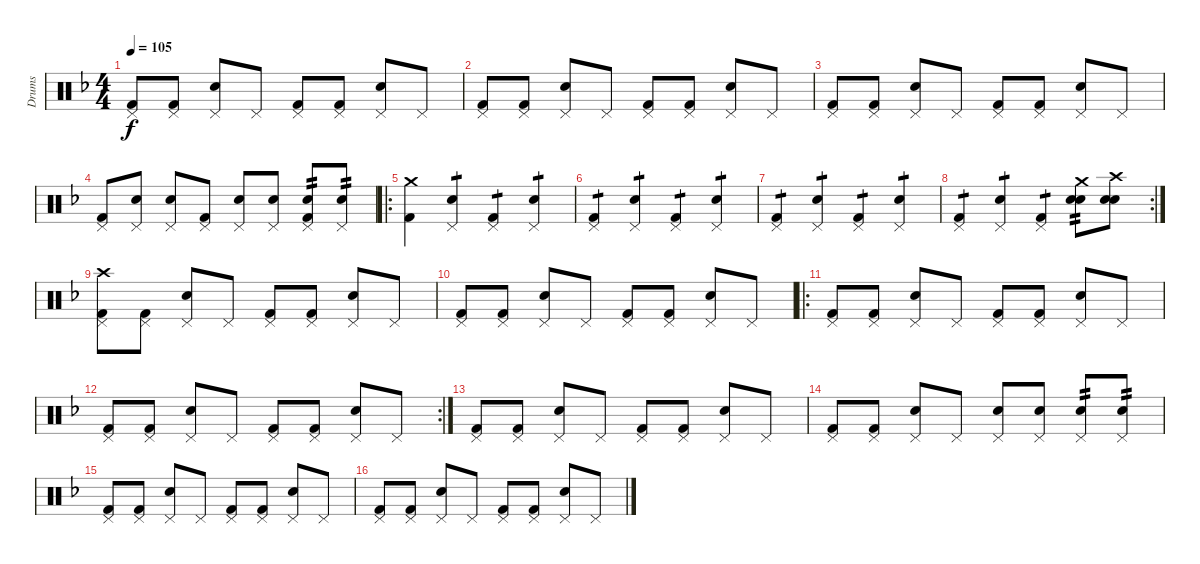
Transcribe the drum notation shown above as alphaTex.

\track ("Drums" "Drums") {instrument percussion}
\staff {score}
\articulation defaults
\ts (4 4)
\tempo 105
\clef neutral
\ks f
("Kick (hit) 2" "Pedal Hi-Hat (hit)").8{dy f} ("Kick (hit) 2" "Pedal Hi-Hat (hit)").8 ("Snare (hit) 2" "Pedal Hi-Hat (hit)").8 "Pedal Hi-Hat (hit)".8 ("Kick (hit) 2" "Pedal Hi-Hat (hit)").8 ("Kick (hit) 2" "Pedal Hi-Hat (hit)").8 ("Snare (hit) 2" "Pedal Hi-Hat (hit)").8 "Pedal Hi-Hat (hit)".8 |
("Kick (hit) 2" "Pedal Hi-Hat (hit)").8 ("Kick (hit) 2" "Pedal Hi-Hat (hit)").8 ("Snare (hit) 2" "Pedal Hi-Hat (hit)").8 "Pedal Hi-Hat (hit)".8 ("Kick (hit) 2" "Pedal Hi-Hat (hit)").8 ("Kick (hit) 2" "Pedal Hi-Hat (hit)").8 ("Snare (hit) 2" "Pedal Hi-Hat (hit)").8 "Pedal Hi-Hat (hit)".8 |
("Kick (hit) 2" "Pedal Hi-Hat (hit)").8 ("Kick (hit) 2" "Pedal Hi-Hat (hit)").8 ("Snare (hit) 2" "Pedal Hi-Hat (hit)").8 "Pedal Hi-Hat (hit)".8 ("Kick (hit) 2" "Pedal Hi-Hat (hit)").8 ("Kick (hit) 2" "Pedal Hi-Hat (hit)").8 ("Snare (hit) 2" "Pedal Hi-Hat (hit)").8 "Pedal Hi-Hat (hit)".8 |
("Kick (hit) 2" "Pedal Hi-Hat (hit)").8 ("Snare (hit) 2" "Pedal Hi-Hat (hit)").8 ("Snare (hit) 2" "Pedal Hi-Hat (hit)").8 ("Kick (hit) 2" "Pedal Hi-Hat (hit)").8 ("Snare (hit) 2" "Pedal Hi-Hat (hit)").8 ("Snare (hit) 2" "Pedal Hi-Hat (hit)").8 ("Snare (hit) 2" "Kick (hit) 2" "Pedal Hi-Hat (hit)").8{tp 2} ("Snare (hit) 2" "Pedal Hi-Hat (hit)").8{tp 2} |
\ro
("Kick (hit) 2" "Crash medium (hit)").4 ("Snare (hit) 2" "Pedal Hi-Hat (hit)").4{tp 1} ("Kick (hit) 2" "Pedal Hi-Hat (hit)").4{tp 1} ("Snare (hit) 2" "Pedal Hi-Hat (hit)").4{tp 1} |
("Kick (hit) 2" "Pedal Hi-Hat (hit)").4{tp 1} ("Snare (hit) 2" "Pedal Hi-Hat (hit)").4{tp 1} ("Kick (hit) 2" "Pedal Hi-Hat (hit)").4{tp 1} ("Snare (hit) 2" "Pedal Hi-Hat (hit)").4{tp 1} |
("Kick (hit) 2" "Pedal Hi-Hat (hit)").4{tp 1} ("Snare (hit) 2" "Pedal Hi-Hat (hit)").4{tp 1} ("Kick (hit) 2" "Pedal Hi-Hat (hit)").4{tp 1} ("Snare (hit) 2" "Pedal Hi-Hat (hit)").4{tp 1} |
\rc 2
("Kick (hit) 2" "Pedal Hi-Hat (hit)").4{tp 1} ("Snare (hit) 2" "Pedal Hi-Hat (hit)").4{tp 1} ("Kick (hit) 2" "Pedal Hi-Hat (hit)").4{tp 1} ("Snare (hit) 2" "Snare (hit) 2" "Crash medium (hit)").8{tp 2} ("Snare (hit) 2" "Snare (hit) 2" "Crash high (hit)").8 |
("Kick (hit) 2" "Pedal Hi-Hat (hit)" "Crash high (hit)").8 ("Kick (hit) 2" "Pedal Hi-Hat (hit)").8 ("Snare (hit) 2" "Pedal Hi-Hat (hit)").8 "Pedal Hi-Hat (hit)".8 ("Kick (hit) 2" "Pedal Hi-Hat (hit)").8 ("Kick (hit) 2" "Pedal Hi-Hat (hit)").8 ("Snare (hit) 2" "Pedal Hi-Hat (hit)").8 "Pedal Hi-Hat (hit)".8 |
("Kick (hit) 2" "Pedal Hi-Hat (hit)").8 ("Kick (hit) 2" "Pedal Hi-Hat (hit)").8 ("Snare (hit) 2" "Pedal Hi-Hat (hit)").8 "Pedal Hi-Hat (hit)".8 ("Kick (hit) 2" "Pedal Hi-Hat (hit)").8 ("Kick (hit) 2" "Pedal Hi-Hat (hit)").8 ("Snare (hit) 2" "Pedal Hi-Hat (hit)").8 "Pedal Hi-Hat (hit)".8 |
\ro
("Kick (hit) 2" "Pedal Hi-Hat (hit)").8 ("Kick (hit) 2" "Pedal Hi-Hat (hit)").8 ("Snare (hit) 2" "Pedal Hi-Hat (hit)").8 "Pedal Hi-Hat (hit)".8 ("Kick (hit) 2" "Pedal Hi-Hat (hit)").8 ("Kick (hit) 2" "Pedal Hi-Hat (hit)").8 ("Snare (hit) 2" "Pedal Hi-Hat (hit)").8 "Pedal Hi-Hat (hit)".8 |
\rc 2
("Kick (hit) 2" "Pedal Hi-Hat (hit)").8 ("Kick (hit) 2" "Pedal Hi-Hat (hit)").8 ("Snare (hit) 2" "Pedal Hi-Hat (hit)").8 "Pedal Hi-Hat (hit)".8 ("Kick (hit) 2" "Pedal Hi-Hat (hit)").8 ("Kick (hit) 2" "Pedal Hi-Hat (hit)").8 ("Snare (hit) 2" "Pedal Hi-Hat (hit)").8 "Pedal Hi-Hat (hit)".8 |
("Kick (hit) 2" "Pedal Hi-Hat (hit)").8 ("Kick (hit) 2" "Pedal Hi-Hat (hit)").8 ("Snare (hit) 2" "Pedal Hi-Hat (hit)").8 "Pedal Hi-Hat (hit)".8 ("Kick (hit) 2" "Pedal Hi-Hat (hit)").8 ("Kick (hit) 2" "Pedal Hi-Hat (hit)").8 ("Snare (hit) 2" "Pedal Hi-Hat (hit)").8 "Pedal Hi-Hat (hit)".8 |
("Kick (hit) 2" "Pedal Hi-Hat (hit)").8 ("Kick (hit) 2" "Pedal Hi-Hat (hit)").8 ("Snare (hit) 2" "Pedal Hi-Hat (hit)").8 "Pedal Hi-Hat (hit)".8 ("Snare (hit) 2" "Pedal Hi-Hat (hit)").8 ("Snare (hit) 2" "Pedal Hi-Hat (hit)").8 ("Snare (hit) 2" "Pedal Hi-Hat (hit)").8{tp 2} ("Snare (hit) 2" "Pedal Hi-Hat (hit)").8{tp 2} |
("Kick (hit) 2" "Pedal Hi-Hat (hit)").8 ("Kick (hit) 2" "Pedal Hi-Hat (hit)").8 ("Snare (hit) 2" "Pedal Hi-Hat (hit)").8 "Pedal Hi-Hat (hit)".8 ("Kick (hit) 2" "Pedal Hi-Hat (hit)").8 ("Kick (hit) 2" "Pedal Hi-Hat (hit)").8 ("Snare (hit) 2" "Pedal Hi-Hat (hit)").8 "Pedal Hi-Hat (hit)".8 |
("Kick (hit) 2" "Pedal Hi-Hat (hit)").8 ("Kick (hit) 2" "Pedal Hi-Hat (hit)").8 ("Snare (hit) 2" "Pedal Hi-Hat (hit)").8 "Pedal Hi-Hat (hit)".8 ("Kick (hit) 2" "Pedal Hi-Hat (hit)").8 ("Kick (hit) 2" "Pedal Hi-Hat (hit)").8 ("Snare (hit) 2" "Pedal Hi-Hat (hit)").8 "Pedal Hi-Hat (hit)".8
